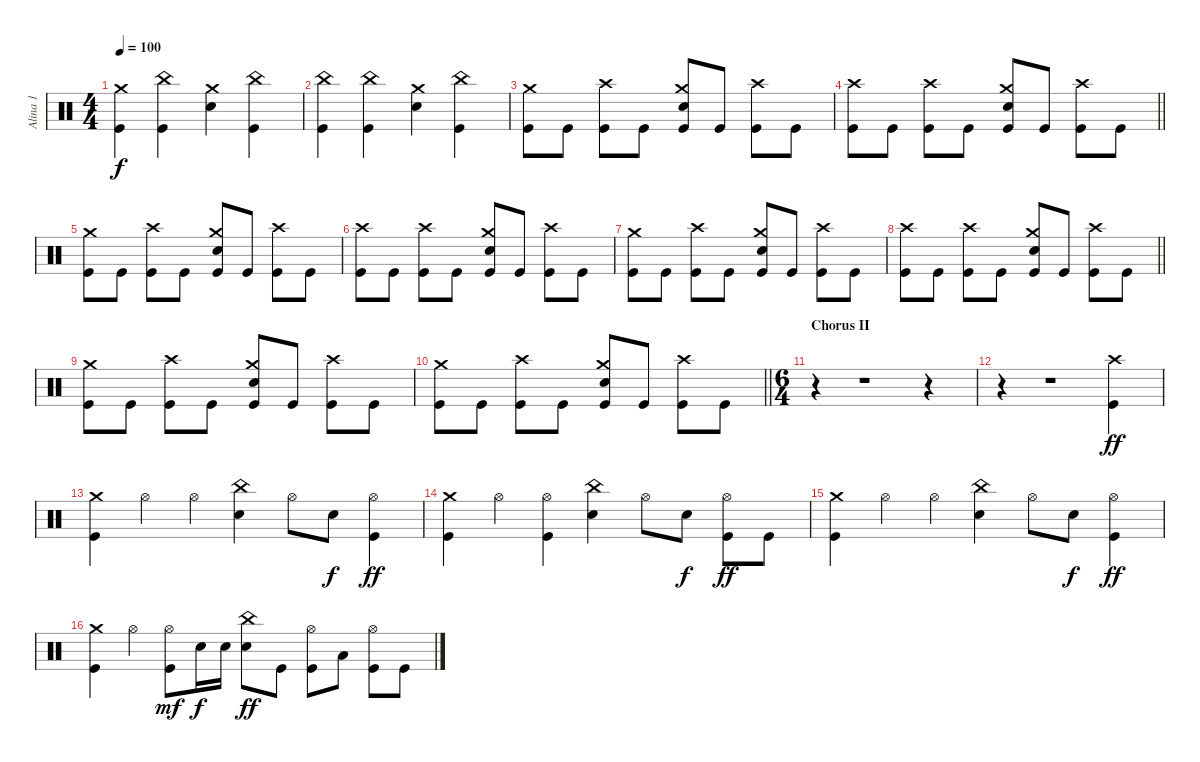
\track ("Alina 1" "Alina 1") {mute instrument percussion}
\staff {score}
\articulation defaults
\ts (4 4)
\tempo 100
\clef neutral
\ks c
("Kick (hit)" "Crash medium (hit)").4{dy f} ("China (hit)" "Kick (hit)").4 ("Snare (hit) 2" "Crash medium (hit)").4 ("China (hit)" "Kick (hit)").4 |
("Kick (hit)" "China (hit)").4 ("China (hit)" "Kick (hit)").4 ("Snare (hit) 2" "Crash medium (hit)").4 ("China (hit)" "Kick (hit)").4 |
("Kick (hit)" "Crash medium (hit)").8 "Kick (hit)".8 ("Kick (hit)" "Crash high (hit)").8 "Kick (hit)".8 ("Kick (hit)" "Snare (hit) 2" "Crash medium (hit)").8 "Kick (hit)".8 ("Kick (hit)" "Crash high (hit)").8 "Kick (hit)".8 |
\barLineRight lightlight
("Kick (hit)" "Crash high (hit)").8 "Kick (hit)".8 ("Kick (hit)" "Crash high (hit)").8 "Kick (hit)".8 ("Kick (hit)" "Snare (hit) 2" "Crash medium (hit)").8 "Kick (hit)".8 ("Kick (hit)" "Crash high (hit)").8 "Kick (hit)".8 |
("Kick (hit)" "Crash medium (hit)").8 "Kick (hit)".8 ("Kick (hit)" "Crash high (hit)").8 "Kick (hit)".8 ("Kick (hit)" "Snare (hit) 2" "Crash medium (hit)").8 "Kick (hit)".8 ("Kick (hit)" "Crash high (hit)").8 "Kick (hit)".8 |
("Kick (hit)" "Crash high (hit)").8 "Kick (hit)".8 ("Kick (hit)" "Crash high (hit)").8 "Kick (hit)".8 ("Kick (hit)" "Snare (hit) 2" "Crash medium (hit)").8 "Kick (hit)".8 ("Kick (hit)" "Crash high (hit)").8 "Kick (hit)".8 |
("Kick (hit)" "Crash medium (hit)").8 "Kick (hit)".8 ("Kick (hit)" "Crash high (hit)").8 "Kick (hit)".8 ("Kick (hit)" "Snare (hit) 2" "Crash medium (hit)").8 "Kick (hit)".8 ("Kick (hit)" "Crash high (hit)").8 "Kick (hit)".8 |
\barLineRight lightlight
("Kick (hit)" "Crash high (hit)").8 "Kick (hit)".8 ("Kick (hit)" "Crash high (hit)").8 "Kick (hit)".8 ("Kick (hit)" "Snare (hit) 2" "Crash medium (hit)").8 "Kick (hit)".8 ("Kick (hit)" "Crash high (hit)").8 "Kick (hit)".8 |
("Kick (hit)" "Crash medium (hit)").8 "Kick (hit)".8 ("Kick (hit)" "Crash high (hit)").8 "Kick (hit)".8 ("Kick (hit)" "Snare (hit) 2" "Crash medium (hit)").8 "Kick (hit)".8 ("Kick (hit)" "Crash high (hit)").8 "Kick (hit)".8 |
\barLineRight lightlight
("Kick (hit)" "Crash medium (hit)").8 "Kick (hit)".8 ("Kick (hit)" "Crash high (hit)").8 "Kick (hit)".8 ("Kick (hit)" "Snare (hit) 2" "Crash medium (hit)").8 "Kick (hit)".8 ("Kick (hit)" "Crash high (hit)").8 "Kick (hit)".8 |
\ts (6 4)
\section ("" "Chorus II")
r.4 r.1 r.4 |
r.4 r.1 ("Kick (hit)" "Crash high (hit)").4{dy ff} |
("Kick (hit)" "Crash medium (hit)").4 "Hi-Hat (open)".4 "Hi-Hat (open)".4 ("Snare (hit) 2" "China (hit)").4 "Hi-Hat (open)".8 "Snare (hit) 2".8{dy f} ("Hi-Hat (open)" "Kick (hit)").4{dy ff} |
("Kick (hit)" "Crash medium (hit)").4 "Hi-Hat (open)".4 ("Hi-Hat (open)" "Kick (hit)").4 ("Snare (hit) 2" "China (hit)").4 "Hi-Hat (open)".8 "Snare (hit) 2".8{dy f} ("Hi-Hat (open)" "Kick (hit)").8{dy ff} "Kick (hit)".8 |
("Kick (hit)" "Crash medium (hit)").4 "Hi-Hat (open)".4 "Hi-Hat (open)".4 ("Snare (hit) 2" "China (hit)").4 "Hi-Hat (open)".8 "Snare (hit) 2".8{dy f} ("Hi-Hat (open)" "Kick (hit)").4{dy ff} |
("Kick (hit)" "Crash medium (hit)").4 "Hi-Hat (open)".4 ("Hi-Hat (open)" "Kick (hit)").8{dy mf} "Snare (hit) 2".16{dy f} "Snare (hit) 2".16 ("Snare (hit) 2" "China (hit)").8{dy ff} "Kick (hit)".8 ("Hi-Hat (open)" "Kick (hit)").8 "Low Floor Tom (hit)".8 ("Kick (hit)" "Hi-Hat (open)").8 "Kick (hit)".8
